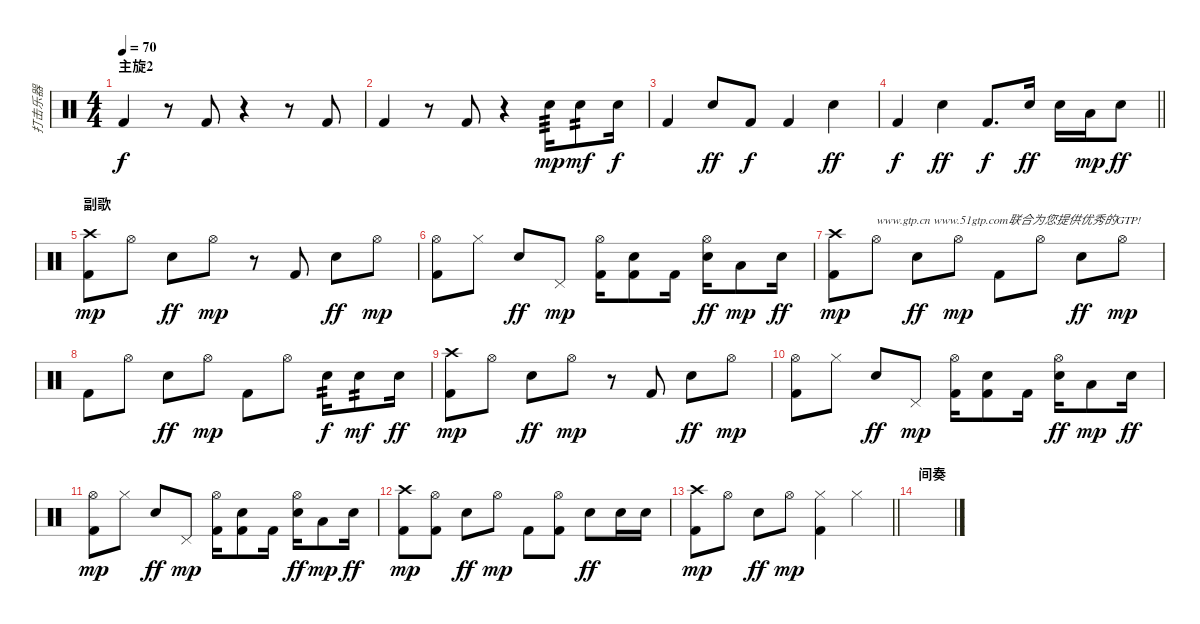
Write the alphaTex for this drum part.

\track ("打击乐器" "打击乐器") {instrument percussion}
\staff {score}
\articulation defaults
\ts (4 4)
\section ("" "主旋2")
\tempo 70
\clef neutral
\ks c "Kick (hit) 2".4{dy f}
r.8 "Kick (hit) 2".8 r.4 r.8 "Kick (hit) 2".8 |
"Kick (hit) 2".4 r.8 "Kick (hit) 2".8 r.4 "Snare (hit) 2".16{tp 3 dy mp} "Snare (hit) 2".8{tp 2 dy mf} "Snare (hit) 2".16{dy f} |
"Kick (hit) 2".4 "Snare (hit) 2".8{dy ff} "Kick (hit) 2".8{dy f} "Kick (hit) 2".4 "Snare (hit) 2".4{dy ff} |
\barLineRight lightlight "Kick (hit) 2".4{dy f} "Snare (hit) 2".4{dy ff} "Kick (hit) 2".8{d dy f} "Snare (hit) 2".16{dy ff} "Snare (hit) 2".16 "Low Tom (hit)".16{dy mp} "Snare (hit) 2".8{dy ff}
|
\section ("" "副歌")
("Crash high (hit)" "Kick (hit) 2").8{dy mp} "Hi-Hat (open)".8 "Snare (hit) 2".8{dy ff} "Hi-Hat (open)".8{dy mp} r.8 "Kick (hit) 2".8 "Snare (hit) 2".8{dy ff} "Hi-Hat (open)".8{dy mp} |
("Hi-Hat (open)" "Kick (hit) 2").8 "Hi-Hat (closed)".8 "Snare (hit) 2".8{dy ff} "Pedal Hi-Hat (hit)".8{dy mp} ("Hi-Hat (open)" "Kick (hit) 2").16 ("Snare (hit) 2" "Kick (hit) 2").8 "Kick (hit) 2".16 ("Hi-Hat (open)" "Snare (hit) 2").16{dy ff} "Low Tom (hit)".8{dy mp} "Snare (hit) 2".16{dy ff} |
("Crash high (hit)" "Kick (hit) 2").8{dy mp} "Hi-Hat (open)".8{txt "www.gtp.cn www.51gtp.com联合为您提供优秀的GTP!"} "Snare (hit) 2".8{dy ff} "Hi-Hat (open)".8{dy mp} "Kick (hit) 2".8 "Hi-Hat (open)".8 "Snare (hit) 2".8{dy ff} "Hi-Hat (open)".8{dy mp} |
"Kick (hit) 2".8 "Hi-Hat (open)".8 "Snare (hit) 2".8{dy ff} "Hi-Hat (open)".8{dy mp} "Kick (hit) 2".8 "Hi-Hat (open)".8 "Snare (hit) 2".16{tp 2 dy f} "Snare (hit) 2".8{tp 2 dy mf} "Snare (hit) 2".16{dy ff} |
("Crash high (hit)" "Kick (hit) 2").8{dy mp} "Hi-Hat (open)".8 "Snare (hit) 2".8{dy ff} "Hi-Hat (open)".8{dy mp} r.8 "Kick (hit) 2".8 "Snare (hit) 2".8{dy ff} "Hi-Hat (open)".8{dy mp} |
("Hi-Hat (open)" "Kick (hit) 2").8 "Hi-Hat (closed)".8 "Snare (hit) 2".8{dy ff} "Pedal Hi-Hat (hit)".8{dy mp} ("Hi-Hat (open)" "Kick (hit) 2").16 ("Snare (hit) 2" "Kick (hit) 2").8 "Kick (hit) 2".16 ("Hi-Hat (open)" "Snare (hit) 2").16{dy ff} "Low Tom (hit)".8{dy mp} "Snare (hit) 2".16{dy ff} |
("Hi-Hat (open)" "Kick (hit) 2").8{dy mp} "Hi-Hat (closed)".8 "Snare (hit) 2".8{dy ff} "Pedal Hi-Hat (hit)".8{dy mp} ("Hi-Hat (open)" "Kick (hit) 2").16 ("Snare (hit) 2" "Kick (hit) 2").8 "Kick (hit) 2".16 ("Hi-Hat (open)" "Snare (hit) 2").16{dy ff} "Low Tom (hit)".8{dy mp} "Snare (hit) 2".16{dy ff} |
("Crash high (hit)" "Kick (hit) 2").8{dy mp} ("Hi-Hat (open)" "Kick (hit) 2").8 "Snare (hit) 2".8{dy ff} "Hi-Hat (open)".8{dy mp} "Kick (hit) 2".8 ("Hi-Hat (open)" "Kick (hit) 2").8 "Snare (hit) 2".8{dy ff} "Snare (hit) 2".16 "Snare (hit) 2".16 |
\barLineRight lightlight
("Crash high (hit)" "Kick (hit) 2").8{dy mp} "Hi-Hat (open)".8 "Snare (hit) 2".8{dy ff} "Hi-Hat (open)".8{dy mp} ("Hi-Hat (closed)" "Kick (hit) 2").4 "Hi-Hat (closed)".4 |
\section ("" "间奏")
